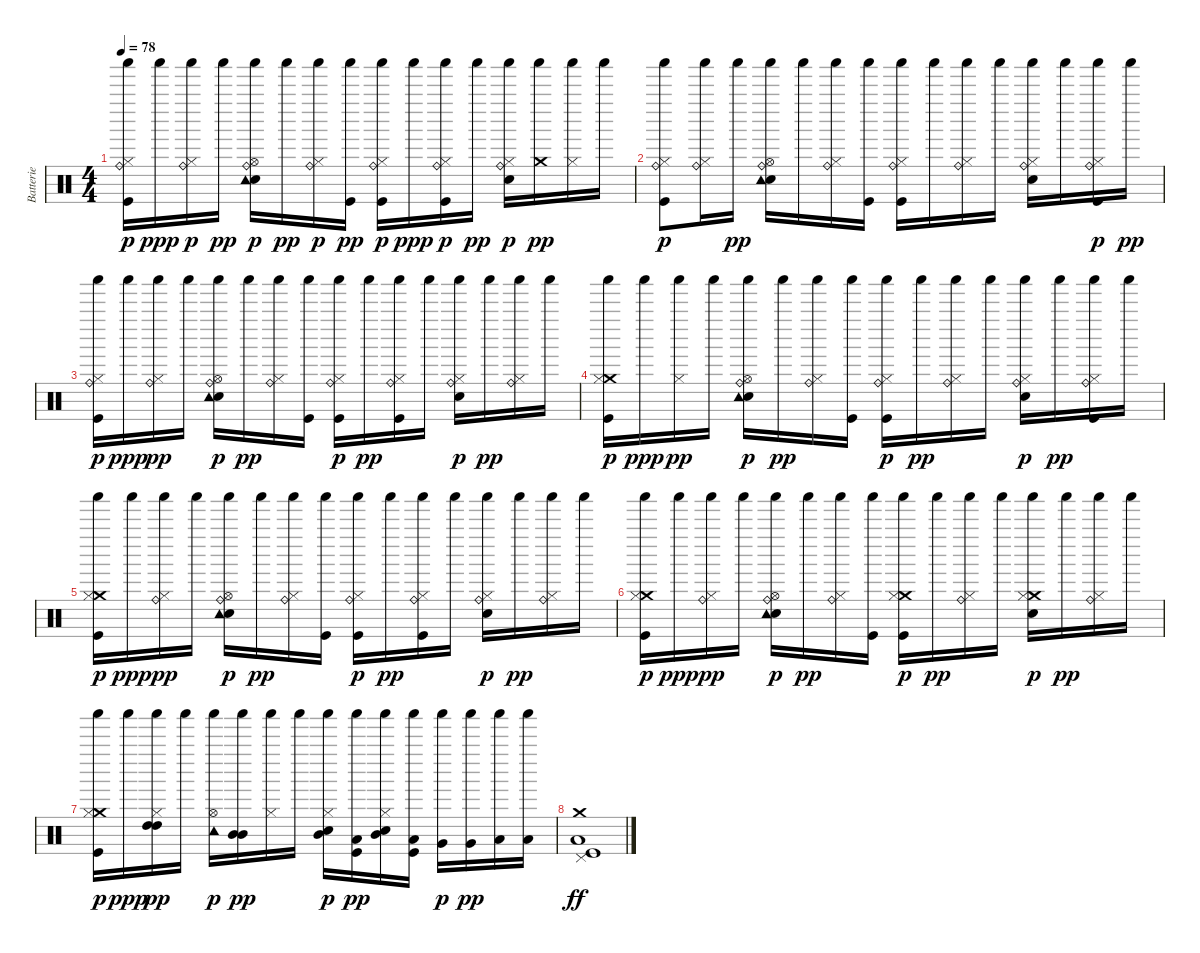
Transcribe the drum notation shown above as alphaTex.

\track ("Batterie" "Batterie") {instrument percussion}
\staff {score}
\articulation defaults
\ts (4 4)
\tempo 78
\clef neutral
\ks c
("Ride (bell)" "Kick (hit)" "Hi-Hat (closed)" "Shaker (hit)").16{dy p} "Shaker (hit)".16{dy ppp} ("Ride (bell)" "Hi-Hat (closed)" "Shaker (hit)").16{dy p} "Shaker (hit)".16{dy pp} ("Hi-Hat (open)" "Electric Snare (hit)" "Ride (bell)" "Shaker (hit)" "Tambourine (hit)").16{dy p} "Shaker (hit)".16{dy pp} ("Ride (bell)" "Hi-Hat (closed)" "Shaker (hit)").16{dy p} ("Kick (hit)" "Shaker (hit)").16{dy pp} ("Ride (bell)" "Kick (hit)" "Hi-Hat (closed)" "Shaker (hit)").16{dy p} "Shaker (hit)".16{dy ppp} ("Ride (bell)" "Kick (hit)" "Hi-Hat (closed)" "Shaker (hit)").16{dy p} "Shaker (hit)".16{dy pp} ("Electric Snare (hit)" "Ride (bell)" "Hi-Hat (closed)" "Shaker (hit)").16{dy p} ("Crash medium (hit)" "Shaker (hit)").16{dy pp} ("Hi-Hat (closed)" "Shaker (hit)").16 "Shaker (hit)".16 |
("Ride (bell)" "Kick (hit)" "Hi-Hat (closed)" "Shaker (hit)").8{dy p} ("Ride (bell)" "Hi-Hat (closed)" "Shaker (hit)").16 "Shaker (hit)".16{dy pp} ("Hi-Hat (open)" "Electric Snare (hit)" "Ride (bell)" "Shaker (hit)" "Tambourine (hit)").16 "Shaker (hit)".16 ("Ride (bell)" "Hi-Hat (closed)" "Shaker (hit)").16 ("Kick (hit)" "Shaker (hit)").16 ("Ride (bell)" "Kick (hit)" "Hi-Hat (closed)" "Shaker (hit)").16 "Shaker (hit)".16 ("Ride (bell)" "Hi-Hat (closed)" "Shaker (hit)").16 "Shaker (hit)".16 ("Electric Snare (hit)" "Ride (bell)" "Hi-Hat (closed)" "Shaker (hit)").16 "Shaker (hit)".16 ("Ride (bell)" "Kick (hit)" "Hi-Hat (closed)" "Shaker (hit)").16{dy p} "Shaker (hit)".16{dy pp} |
("Ride (bell)" "Kick (hit)" "Hi-Hat (closed)" "Shaker (hit)").16{dy p} "Shaker (hit)".16{dy ppp} ("Ride (bell)" "Hi-Hat (closed)" "Shaker (hit)").16{dy pp} "Shaker (hit)".16 ("Hi-Hat (open)" "Electric Snare (hit)" "Ride (bell)" "Shaker (hit)" "Tambourine (hit)").16{dy p} "Shaker (hit)".16{dy pp} ("Ride (bell)" "Hi-Hat (closed)" "Shaker (hit)").16 ("Kick (hit)" "Shaker (hit)").16 ("Ride (bell)" "Kick (hit)" "Hi-Hat (closed)" "Shaker (hit)").16{dy p} "Shaker (hit)".16{dy pp} ("Ride (bell)" "Kick (hit)" "Hi-Hat (closed)" "Shaker (hit)").16 "Shaker (hit)".16 ("Electric Snare (hit)" "Ride (bell)" "Hi-Hat (closed)" "Shaker (hit)").16{dy p} "Shaker (hit)".16{dy pp} ("Ride (bell)" "Hi-Hat (closed)" "Shaker (hit)").16 "Shaker (hit)".16 |
("Crash medium (hit)" "Kick (hit)" "Hi-Hat (closed)" "Shaker (hit)").16{dy p} "Shaker (hit)".16{dy ppp} ("Hi-Hat (closed)" "Shaker (hit)").16{dy pp} "Shaker (hit)".16 ("Hi-Hat (open)" "Electric Snare (hit)" "Ride (bell)" "Shaker (hit)" "Tambourine (hit)").16{dy p} "Shaker (hit)".16{dy pp} ("Ride (bell)" "Hi-Hat (closed)" "Shaker (hit)").16 ("Kick (hit)" "Shaker (hit)").16 ("Ride (bell)" "Kick (hit)" "Hi-Hat (closed)" "Shaker (hit)").16{dy p} "Shaker (hit)".16{dy pp} ("Ride (bell)" "Hi-Hat (closed)" "Shaker (hit)").16 "Shaker (hit)".16 ("Electric Snare (hit)" "Ride (bell)" "Hi-Hat (closed)" "Shaker (hit)").16{dy p} "Shaker (hit)".16{dy pp} ("Ride (bell)" "Kick (hit)" "Hi-Hat (closed)" "Shaker (hit)").16 "Shaker (hit)".16 |
("Crash medium (hit)" "Kick (hit)" "Hi-Hat (closed)" "Shaker (hit)").16{dy p} "Shaker (hit)".16{dy ppp} ("Ride (bell)" "Hi-Hat (closed)" "Shaker (hit)").16{dy pp} "Shaker (hit)".16 ("Hi-Hat (open)" "Electric Snare (hit)" "Ride (bell)" "Shaker (hit)" "Tambourine (hit)").16{dy p} "Shaker (hit)".16{dy pp} ("Ride (bell)" "Hi-Hat (closed)" "Shaker (hit)").16 ("Kick (hit)" "Shaker (hit)").16 ("Ride (bell)" "Kick (hit)" "Hi-Hat (closed)" "Shaker (hit)").16{dy p} "Shaker (hit)".16{dy pp} ("Ride (bell)" "Kick (hit)" "Hi-Hat (closed)" "Shaker (hit)").16 "Shaker (hit)".16 ("Electric Snare (hit)" "Ride (bell)" "Hi-Hat (closed)" "Shaker (hit)").16{dy p} "Shaker (hit)".16{dy pp} ("Ride (bell)" "Hi-Hat (closed)" "Shaker (hit)").16 "Shaker (hit)".16 |
("Crash medium (hit)" "Kick (hit)" "Hi-Hat (closed)" "Shaker (hit)").16{dy p} "Shaker (hit)".16{dy ppp} ("Ride (bell)" "Hi-Hat (closed)" "Shaker (hit)").16{dy pp} "Shaker (hit)".16 ("Hi-Hat (open)" "Electric Snare (hit)" "Ride (bell)" "Shaker (hit)" "Tambourine (hit)").16{dy p} "Shaker (hit)".16{dy pp} ("Ride (bell)" "Hi-Hat (closed)" "Shaker (hit)").16 ("Kick (hit)" "Shaker (hit)").16 ("Crash medium (hit)" "Kick (hit)" "Hi-Hat (closed)" "Shaker (hit)").16{dy p} "Shaker (hit)".16{dy pp} ("Ride (bell)" "Hi-Hat (closed)" "Shaker (hit)").16 "Shaker (hit)".16 ("Crash medium (hit)" "Electric Snare (hit)" "Hi-Hat (closed)" "Shaker (hit)").16{dy p} "Shaker (hit)".16{dy pp} ("Ride (bell)" "Hi-Hat (closed)" "Shaker (hit)").16 "Shaker (hit)".16 |
("Crash medium (hit)" "Kick (hit)" "Hi-Hat (closed)" "Shaker (hit)").16{dy p} "Shaker (hit)".16{dy ppp} ("High Tom (hit)" "High Tom (hit)" "Hi-Hat (closed)" "Shaker (hit)").16{dy pp} "Shaker (hit)".16 ("Hi-Hat (open)" "Shaker (hit)" "Tambourine (hit)").16{dy p} ("Mid Tom (hit)" "Mid Tom (hit)" "Shaker (hit)").16{dy pp} ("Hi-Hat (closed)" "Shaker (hit)").16 "Shaker (hit)".16 ("Mid Tom (hit)" "Electric Snare (hit)" "Hi-Hat (closed)" "Shaker (hit)").16{dy p} ("Low Tom (hit)" "Kick (hit)" "Shaker (hit)").16{dy pp} ("Mid Tom (hit)" "Electric Snare (hit)" "Hi-Hat (closed)" "Shaker (hit)").16 ("Low Tom (hit)" "Kick (hit)" "Shaker (hit)").16 ("Very Low Tom (hit)" "Shaker (hit)").16{dy p} ("Very Low Tom (hit)" "Shaker (hit)").16{dy pp} ("Low Floor Tom (hit)" "Shaker (hit)").16 ("Low Floor Tom (hit)" "Shaker (hit)").16 |
("Pedal Hi-Hat (hit)" "Crash medium (hit)" "Low Floor Tom (hit)" "Kick (hit)").1{dy ff}
